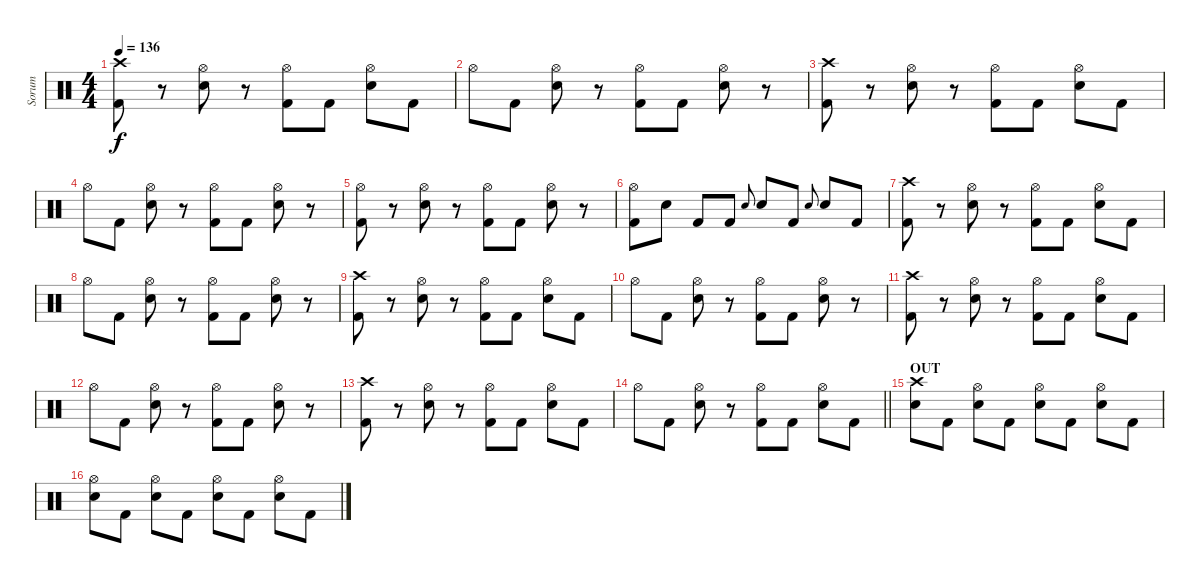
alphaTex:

\track ("Sorum" "Sorum") {instrument percussion}
\staff {score}
\articulation defaults
\ts (4 4)
\tempo 136
\clef neutral
\ks c
("Crash high (hit)" "Kick (hit) 2").8{dy f} r.8 ("Electric Snare (hit)" "Hi-Hat (open)").8 r.8 ("Kick (hit) 2" "Hi-Hat (open)").8 "Kick (hit) 2".8 ("Electric Snare (hit)" "Hi-Hat (open)").8 "Kick (hit) 2".8 |
"Hi-Hat (open)".8 "Kick (hit) 2".8 ("Electric Snare (hit)" "Hi-Hat (open)").8 r.8 ("Kick (hit) 2" "Hi-Hat (open)").8 "Kick (hit) 2".8 ("Electric Snare (hit)" "Hi-Hat (open)").8 r.8 |
("Crash high (hit)" "Kick (hit) 2").8 r.8 ("Electric Snare (hit)" "Hi-Hat (open)").8 r.8 ("Kick (hit) 2" "Hi-Hat (open)").8 "Kick (hit) 2".8 ("Electric Snare (hit)" "Hi-Hat (open)").8 "Kick (hit) 2".8 |
"Hi-Hat (open)".8 "Kick (hit) 2".8 ("Electric Snare (hit)" "Hi-Hat (open)").8 r.8 ("Kick (hit) 2" "Hi-Hat (open)").8 "Kick (hit) 2".8 ("Electric Snare (hit)" "Hi-Hat (open)").8 r.8 |
("Kick (hit) 2" "Hi-Hat (open)").8 r.8 ("Electric Snare (hit)" "Hi-Hat (open)").8 r.8 ("Kick (hit) 2" "Hi-Hat (open)").8 "Kick (hit) 2".8 ("Electric Snare (hit)" "Hi-Hat (open)").8 r.8 |
("Kick (hit) 2" "Hi-Hat (open)").8 "Electric Snare (hit)".8 "Kick (hit) 2".8 "Kick (hit) 2".8 "Electric Snare (hit)".8{gr onbeat} "Electric Snare (hit)".8 "Kick (hit) 2".8 "Electric Snare (hit)".8{gr onbeat} "Electric Snare (hit)".8 "Kick (hit) 2".8 |
("Crash high (hit)" "Kick (hit) 2").8 r.8 ("Electric Snare (hit)" "Hi-Hat (open)").8 r.8 ("Kick (hit) 2" "Hi-Hat (open)").8 "Kick (hit) 2".8 ("Electric Snare (hit)" "Hi-Hat (open)").8 "Kick (hit) 2".8 |
"Hi-Hat (open)".8 "Kick (hit) 2".8 ("Electric Snare (hit)" "Hi-Hat (open)").8 r.8 ("Kick (hit) 2" "Hi-Hat (open)").8 "Kick (hit) 2".8 ("Electric Snare (hit)" "Hi-Hat (open)").8 r.8 |
("Crash high (hit)" "Kick (hit) 2").8 r.8 ("Electric Snare (hit)" "Hi-Hat (open)").8 r.8 ("Kick (hit) 2" "Hi-Hat (open)").8 "Kick (hit) 2".8 ("Electric Snare (hit)" "Hi-Hat (open)").8 "Kick (hit) 2".8 |
"Hi-Hat (open)".8 "Kick (hit) 2".8 ("Electric Snare (hit)" "Hi-Hat (open)").8 r.8 ("Kick (hit) 2" "Hi-Hat (open)").8 "Kick (hit) 2".8 ("Electric Snare (hit)" "Hi-Hat (open)").8 r.8 |
("Crash high (hit)" "Kick (hit) 2").8 r.8 ("Electric Snare (hit)" "Hi-Hat (open)").8 r.8 ("Kick (hit) 2" "Hi-Hat (open)").8 "Kick (hit) 2".8 ("Electric Snare (hit)" "Hi-Hat (open)").8 "Kick (hit) 2".8 |
"Hi-Hat (open)".8 "Kick (hit) 2".8 ("Electric Snare (hit)" "Hi-Hat (open)").8 r.8 ("Kick (hit) 2" "Hi-Hat (open)").8 "Kick (hit) 2".8 ("Electric Snare (hit)" "Hi-Hat (open)").8 r.8 |
("Crash high (hit)" "Kick (hit) 2").8 r.8 ("Electric Snare (hit)" "Hi-Hat (open)").8 r.8 ("Kick (hit) 2" "Hi-Hat (open)").8 "Kick (hit) 2".8 ("Electric Snare (hit)" "Hi-Hat (open)").8 "Kick (hit) 2".8 |
\barLineRight lightlight "Hi-Hat (open)".8 "Kick (hit) 2".8
("Electric Snare (hit)" "Hi-Hat (open)").8 r.8 ("Kick (hit) 2" "Hi-Hat (open)").8 "Kick (hit) 2".8 ("Electric Snare (hit)" "Hi-Hat (open)").8 "Kick (hit) 2".8 |
\section ("" "OUT")
("Crash high (hit)" "Electric Snare (hit)").8 "Kick (hit) 2".8 ("Electric Snare (hit)" "Hi-Hat (open)").8 "Kick (hit) 2".8 ("Electric Snare (hit)" "Hi-Hat (open)").8 "Kick (hit) 2".8 ("Electric Snare (hit)" "Hi-Hat (open)").8 "Kick (hit) 2".8 |
("Electric Snare (hit)" "Hi-Hat (open)").8 "Kick (hit) 2".8 ("Electric Snare (hit)" "Hi-Hat (open)").8 "Kick (hit) 2".8 ("Electric Snare (hit)" "Hi-Hat (open)").8 "Kick (hit) 2".8 ("Electric Snare (hit)" "Hi-Hat (open)").8 "Kick (hit) 2".8
